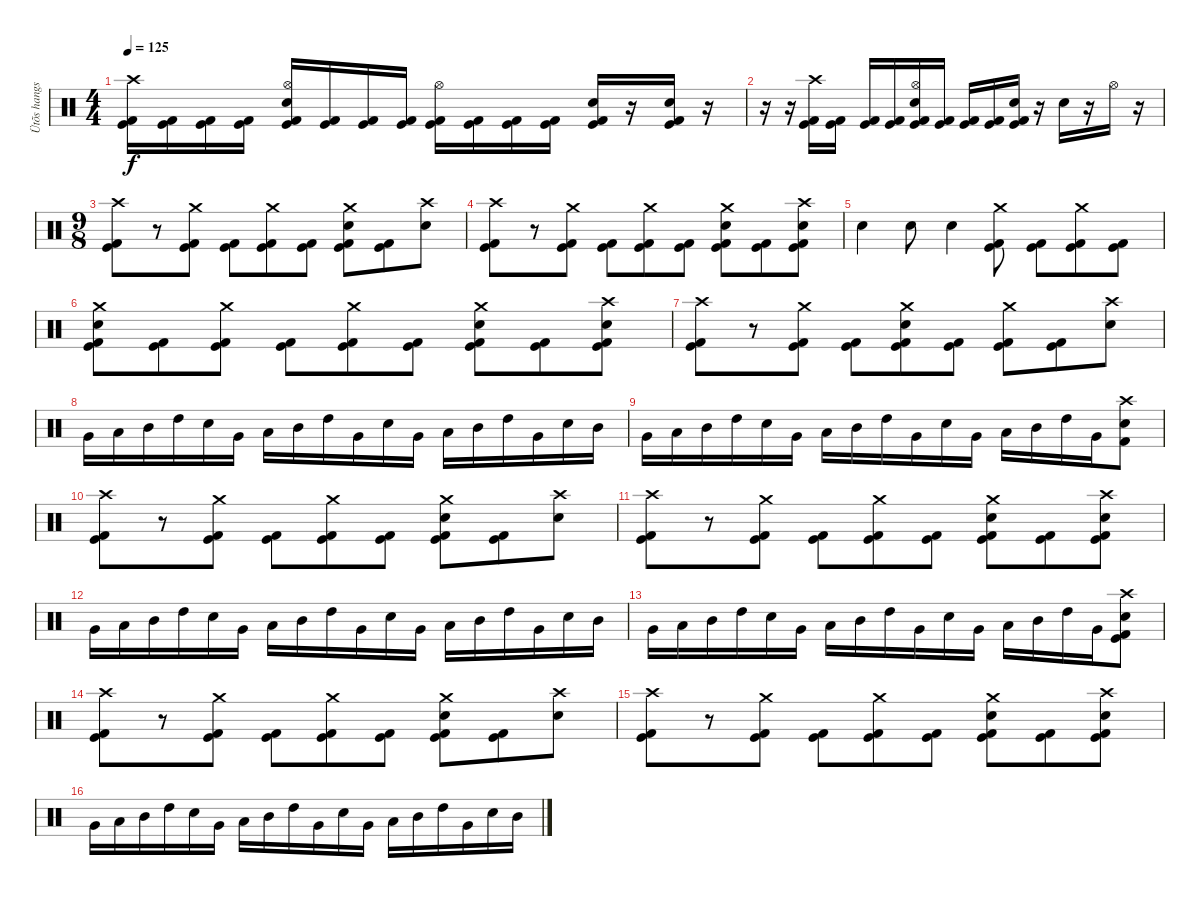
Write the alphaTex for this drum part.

\track ("Ütõs hangszer" "Ütõs hangs") {instrument percussion}
\staff {score}
\articulation defaults
\ts (4 4)
\tempo 125
\clef neutral
\ks c
("Crash high (hit)" "Kick (hit)" "Kick (hit) 2").16{dy f} ("Kick (hit)" "Kick (hit) 2").16 ("Kick (hit)" "Kick (hit) 2").16 ("Kick (hit)" "Kick (hit) 2").16 ("Hi-Hat (open)" "Snare (hit) 2" "Kick (hit)" "Kick (hit) 2").16 ("Kick (hit)" "Kick (hit) 2").16 ("Kick (hit)" "Kick (hit) 2").16 ("Kick (hit)" "Kick (hit) 2").16 ("Hi-Hat (open)" "Kick (hit)" "Kick (hit) 2").16 ("Kick (hit)" "Kick (hit) 2").16 ("Kick (hit)" "Kick (hit) 2").16 ("Kick (hit)" "Kick (hit) 2").16 ("Snare (hit) 2" "Kick (hit)" "Kick (hit) 2").16 r.16 ("Snare (hit) 2" "Kick (hit)" "Kick (hit) 2").16 r.16 |
r.16 r.16 ("Crash high (hit)" "Kick (hit)" "Kick (hit) 2").16 ("Kick (hit)" "Kick (hit) 2").16 ("Kick (hit)" "Kick (hit) 2").16 ("Kick (hit)" "Kick (hit) 2").16 ("Hi-Hat (open)" "Snare (hit) 2" "Kick (hit)" "Kick (hit) 2").16 ("Kick (hit)" "Kick (hit) 2").16 ("Kick (hit)" "Kick (hit) 2").16 ("Kick (hit)" "Kick (hit) 2").16 ("Snare (hit) 2" "Kick (hit)" "Kick (hit) 2").16 r.16 "Snare (hit) 2".16 r.16 "Hi-Hat (open)".16 r.16 |
\ts (9 8)
("Crash high (hit)" "Kick (hit)" "Kick (hit) 2").8 r.8 ("Crash medium (hit)" "Kick (hit)" "Kick (hit) 2").8 ("Kick (hit)" "Kick (hit) 2").8 ("Crash medium (hit)" "Kick (hit)" "Kick (hit) 2").8 ("Kick (hit)" "Kick (hit) 2").8 ("Crash medium (hit)" "Snare (hit) 2" "Kick (hit)" "Kick (hit) 2").8 ("Kick (hit)" "Kick (hit) 2").8 ("Crash high (hit)" "Snare (hit) 2").8 |
("Crash high (hit)" "Kick (hit)" "Kick (hit) 2").8 r.8 ("Crash medium (hit)" "Kick (hit)" "Kick (hit) 2").8 ("Kick (hit)" "Kick (hit) 2").8 ("Crash medium (hit)" "Kick (hit)" "Kick (hit) 2").8 ("Kick (hit)" "Kick (hit) 2").8 ("Crash medium (hit)" "Snare (hit) 2" "Kick (hit)" "Kick (hit) 2").8 ("Kick (hit)" "Kick (hit) 2").8 ("Crash high (hit)" "Snare (hit) 2" "Kick (hit)" "Kick (hit) 2").8 |
"Snare (hit) 2".4 "Snare (hit) 2".8 "Snare (hit) 2".4 ("Crash medium (hit)" "Kick (hit)" "Kick (hit) 2").8 ("Kick (hit)" "Kick (hit) 2").8 ("Crash medium (hit)" "Kick (hit)" "Kick (hit) 2").8 ("Kick (hit)" "Kick (hit) 2").8 |
("Crash medium (hit)" "Snare (hit) 2" "Kick (hit)" "Kick (hit) 2").8 ("Kick (hit)" "Kick (hit) 2").8 ("Crash medium (hit)" "Kick (hit)" "Kick (hit) 2").8 ("Kick (hit)" "Kick (hit) 2").8 ("Crash medium (hit)" "Kick (hit)" "Kick (hit) 2").8 ("Kick (hit)" "Kick (hit) 2").8 ("Crash medium (hit)" "Snare (hit) 2" "Kick (hit)" "Kick (hit) 2").8 ("Kick (hit)" "Kick (hit) 2").8 ("Crash high (hit)" "Snare (hit) 2" "Kick (hit)" "Kick (hit) 2").8 |
("Crash high (hit)" "Kick (hit)" "Kick (hit) 2").8 r.8 ("Crash medium (hit)" "Kick (hit)" "Kick (hit) 2").8 ("Kick (hit)" "Kick (hit) 2").8 ("Crash medium (hit)" "Snare (hit) 2" "Kick (hit)" "Kick (hit) 2").8 ("Kick (hit)" "Kick (hit) 2").8 ("Crash medium (hit)" "Kick (hit)" "Kick (hit) 2").8 ("Kick (hit)" "Kick (hit) 2").8 ("Crash high (hit)" "Snare (hit) 2").8 |
"Very Low Tom (hit)".16 "Low Tom (hit)".16 "Mid Tom (hit)".16 "High Tom (hit)".16 "Snare (hit) 2".16 "Very Low Tom (hit)".16 "Low Tom (hit)".16 "Mid Tom (hit)".16 "High Tom (hit)".16 "Very Low Tom (hit)".16 "Snare (hit) 2".16 "Very Low Tom (hit)".16 "Low Tom (hit)".16 "Mid Tom (hit)".16 "High Tom (hit)".16 "Very Low Tom (hit)".16 "Snare (hit) 2".16 "Mid Tom (hit)".16 |
"Very Low Tom (hit)".16 "Low Tom (hit)".16 "Mid Tom (hit)".16 "High Tom (hit)".16 "Snare (hit) 2".16 "Very Low Tom (hit)".16 "Low Tom (hit)".16 "Mid Tom (hit)".16 "High Tom (hit)".16 "Very Low Tom (hit)".16 "Snare (hit) 2".16 "Very Low Tom (hit)".16 "Low Tom (hit)".16 "Mid Tom (hit)".16 "High Tom (hit)".16 "Very Low Tom (hit)".16 ("Crash high (hit)" "Snare (hit) 2" "Kick (hit) 2").8 |
("Crash high (hit)" "Kick (hit)" "Kick (hit) 2").8 r.8 ("Crash medium (hit)" "Kick (hit)" "Kick (hit) 2").8 ("Kick (hit)" "Kick (hit) 2").8 ("Crash medium (hit)" "Kick (hit)" "Kick (hit) 2").8 ("Kick (hit)" "Kick (hit) 2").8 ("Crash medium (hit)" "Snare (hit) 2" "Kick (hit)" "Kick (hit) 2").8 ("Kick (hit)" "Kick (hit) 2").8 ("Crash high (hit)" "Snare (hit) 2").8 |
("Crash high (hit)" "Kick (hit)" "Kick (hit) 2").8 r.8 ("Crash medium (hit)" "Kick (hit)" "Kick (hit) 2").8 ("Kick (hit)" "Kick (hit) 2").8 ("Crash medium (hit)" "Kick (hit)" "Kick (hit) 2").8 ("Kick (hit)" "Kick (hit) 2").8 ("Crash medium (hit)" "Snare (hit) 2" "Kick (hit)" "Kick (hit) 2").8 ("Kick (hit)" "Kick (hit) 2").8 ("Crash high (hit)" "Snare (hit) 2" "Kick (hit)" "Kick (hit) 2").8 |
"Very Low Tom (hit)".16 "Low Tom (hit)".16 "Mid Tom (hit)".16 "High Tom (hit)".16 "Snare (hit) 2".16 "Very Low Tom (hit)".16 "Low Tom (hit)".16 "Mid Tom (hit)".16 "High Tom (hit)".16 "Very Low Tom (hit)".16 "Snare (hit) 2".16 "Very Low Tom (hit)".16 "Low Tom (hit)".16 "Mid Tom (hit)".16 "High Tom (hit)".16 "Very Low Tom (hit)".16 "Snare (hit) 2".16 "Mid Tom (hit)".16 |
"Very Low Tom (hit)".16 "Low Tom (hit)".16 "Mid Tom (hit)".16 "High Tom (hit)".16 "Snare (hit) 2".16 "Very Low Tom (hit)".16 "Low Tom (hit)".16 "Mid Tom (hit)".16 "High Tom (hit)".16 "Very Low Tom (hit)".16 "Snare (hit) 2".16 "Very Low Tom (hit)".16 "Low Tom (hit)".16 "Mid Tom (hit)".16 "High Tom (hit)".16 "Very Low Tom (hit)".16 ("Crash high (hit)" "Snare (hit) 2" "Kick (hit)" "Kick (hit) 2").8 |
("Crash high (hit)" "Kick (hit)" "Kick (hit) 2").8 r.8 ("Crash medium (hit)" "Kick (hit)" "Kick (hit) 2").8 ("Kick (hit)" "Kick (hit) 2").8 ("Crash medium (hit)" "Kick (hit)" "Kick (hit) 2").8 ("Kick (hit)" "Kick (hit) 2").8 ("Crash medium (hit)" "Snare (hit) 2" "Kick (hit)" "Kick (hit) 2").8 ("Kick (hit)" "Kick (hit) 2").8 ("Crash high (hit)" "Snare (hit) 2").8 |
("Crash high (hit)" "Kick (hit)" "Kick (hit) 2").8 r.8 ("Crash medium (hit)" "Kick (hit)" "Kick (hit) 2").8 ("Kick (hit)" "Kick (hit) 2").8 ("Crash medium (hit)" "Kick (hit)" "Kick (hit) 2").8 ("Kick (hit)" "Kick (hit) 2").8 ("Crash medium (hit)" "Snare (hit) 2" "Kick (hit)" "Kick (hit) 2").8 ("Kick (hit)" "Kick (hit) 2").8 ("Crash high (hit)" "Snare (hit) 2" "Kick (hit)" "Kick (hit) 2").8 |
"Very Low Tom (hit)".16 "Low Tom (hit)".16 "Mid Tom (hit)".16 "High Tom (hit)".16 "Snare (hit) 2".16 "Very Low Tom (hit)".16 "Low Tom (hit)".16 "Mid Tom (hit)".16 "High Tom (hit)".16 "Very Low Tom (hit)".16 "Snare (hit) 2".16 "Very Low Tom (hit)".16 "Low Tom (hit)".16 "Mid Tom (hit)".16 "High Tom (hit)".16 "Very Low Tom (hit)".16 "Snare (hit) 2".16 "Mid Tom (hit)".16
